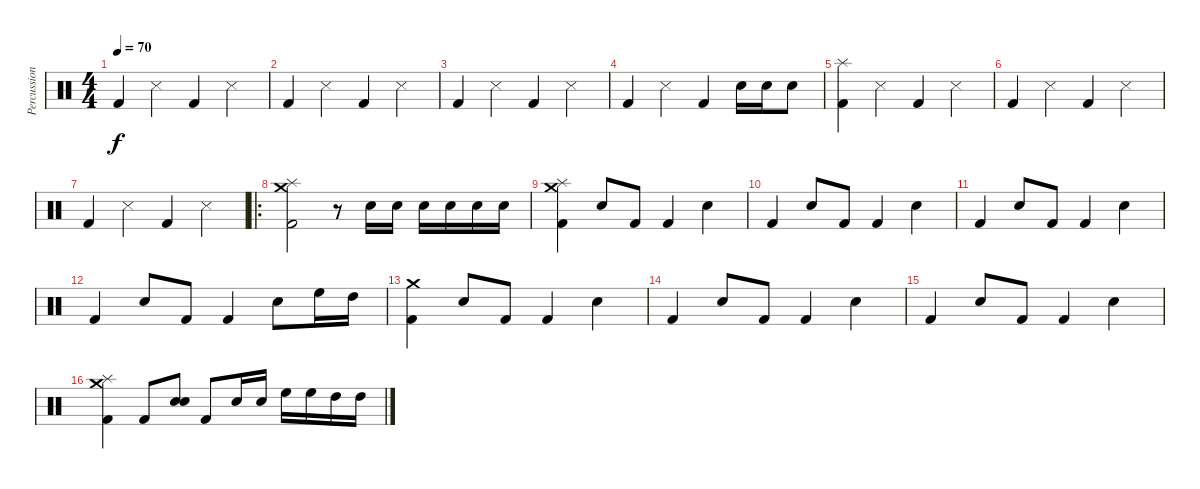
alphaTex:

\track ("Percussion" "Percussion") {instrument percussion}
\staff {score}
\articulation defaults
\ts (4 4)
\tempo 70
\clef neutral
\ks c "Kick (hit) 2".4{dy f} "Snare (side stick) 3".4 "Kick (hit) 2".4 "Snare (side stick) 3".4
|
"Kick (hit) 2".4 "Snare (side stick) 3".4 "Kick (hit) 2".4 "Snare (side stick) 3".4 |
"Kick (hit) 2".4 "Snare (side stick) 3".4 "Kick (hit) 2".4 "Snare (side stick) 3".4 |
"Kick (hit) 2".4 "Snare (side stick) 3".4 "Kick (hit) 2".4 "Electric Snare (hit)".16 "Electric Snare (hit)".16 "Electric Snare (hit)".8 |
("Kick (hit) 2" "Splash (hit)").4 "Snare (side stick) 3".4 "Kick (hit) 2".4 "Snare (side stick) 3".4 |
"Kick (hit) 2".4 "Snare (side stick) 3".4 "Kick (hit) 2".4 "Snare (side stick) 3".4 |
"Kick (hit) 2".4 "Snare (side stick) 3".4 "Kick (hit) 2".4 "Snare (side stick) 3".4 |
\ro
("Kick (hit) 2" "Splash (hit)" "Crash medium (hit)").2 r.8 "Electric Snare (hit)".16 "Electric Snare (hit)".16 "Electric Snare (hit)".16 "Electric Snare (hit)".16 "Electric Snare (hit)".16 "Electric Snare (hit)".16 |
("Kick (hit) 2" "Splash (hit)" "Crash medium (hit)").4 "Electric Snare (hit)".8 "Kick (hit) 2".8 "Kick (hit) 2".4 "Electric Snare (hit)".4 |
"Kick (hit) 2".4 "Electric Snare (hit)".8 "Kick (hit) 2".8 "Kick (hit) 2".4 "Electric Snare (hit)".4 |
"Kick (hit) 2".4 "Electric Snare (hit)".8 "Kick (hit) 2".8 "Kick (hit) 2".4 "Electric Snare (hit)".4 |
"Kick (hit) 2".4 "Electric Snare (hit)".8 "Kick (hit) 2".8 "Kick (hit) 2".4 "Electric Snare (hit)".8 "High Floor Tom (hit)".16 "High Tom (hit)".16 |
("Kick (hit) 2" "Crash medium (hit)").4 "Electric Snare (hit)".8 "Kick (hit) 2".8 "Kick (hit) 2".4 "Electric Snare (hit)".4 |
"Kick (hit) 2".4 "Electric Snare (hit)".8 "Kick (hit) 2".8 "Kick (hit) 2".4 "Electric Snare (hit)".4 |
"Kick (hit) 2".4 "Electric Snare (hit)".8 "Kick (hit) 2".8 "Kick (hit) 2".4 "Electric Snare (hit)".4 |
("Kick (hit) 2" "Splash (hit)" "Crash medium (hit)").4 "Kick (hit) 2".8 ("Electric Snare (hit)" "Electric Snare (hit)").8 "Kick (hit) 2".8 "Electric Snare (hit)".16 "Electric Snare (hit)".16 "High Floor Tom (hit)".16 "High Floor Tom (hit)".16 "High Tom (hit)".16 "High Tom (hit)".16
